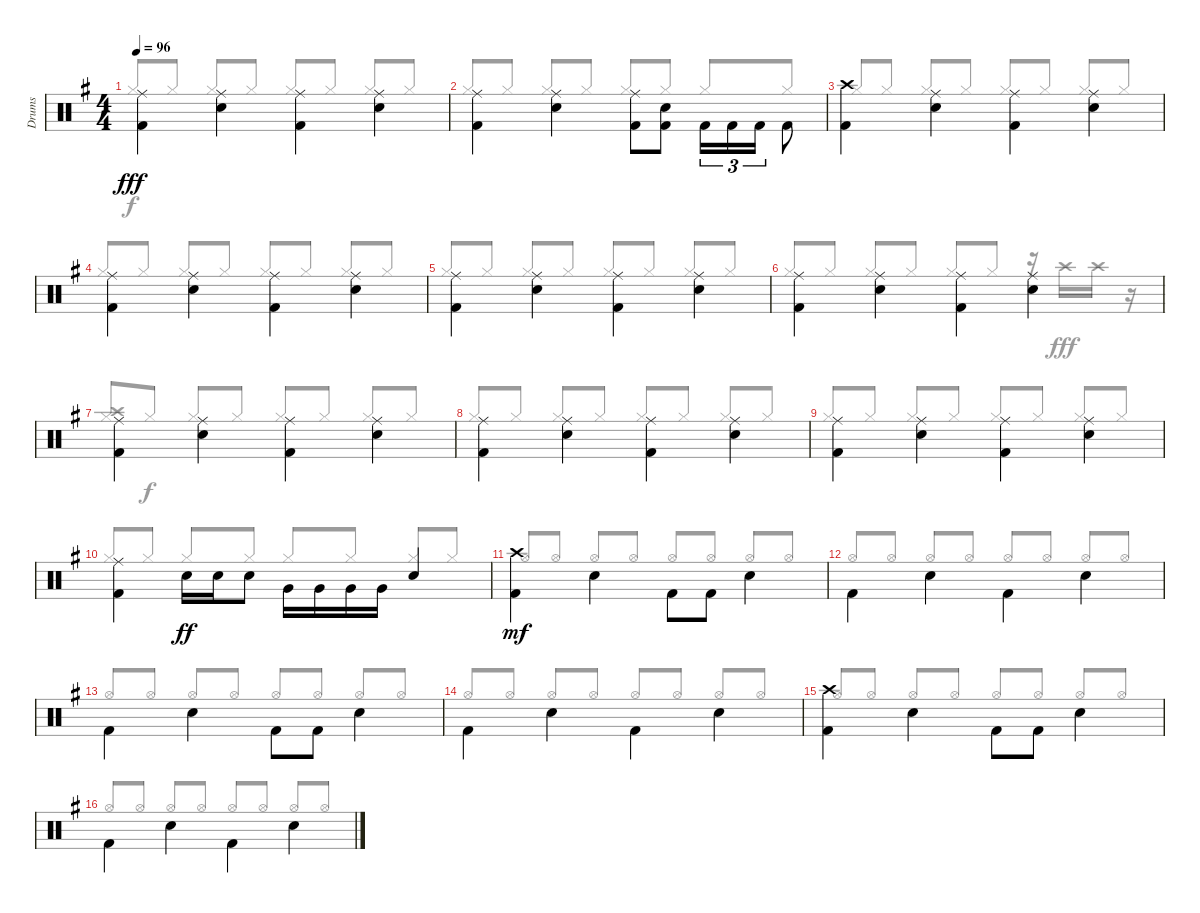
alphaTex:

\track ("Drums" "Drums") {instrument percussion}
\staff {score}
\articulation defaults
\voice
\ts (4 4)
\tempo 96
\clef neutral
\ks g
("Ride (middle)" "Kick (hit) 2").4{dy fff beam Down} ("Ride (middle)" "Snare (hit) 2").4{beam Down} ("Ride (middle)" "Kick (hit) 2").4{beam Down} ("Ride (middle)" "Snare (hit) 2").4{beam Down} |
("Ride (middle)" "Kick (hit) 2").4{beam Down} ("Ride (middle)" "Snare (hit) 2").4{beam Down} ("Ride (middle)" "Kick (hit) 2").8{beam Down} ("Snare (hit) 2" "Kick (hit) 2").8 "Kick (hit) 2".16{tu (3 2) beam Down} "Kick (hit) 2".16{tu (3 2) beam Down} "Kick (hit) 2".16{tu (3 2) beam Down} "Kick (hit) 2".8{beam Down} |
("Crash high (hit)" "Kick (hit) 2").4{beam Down} ("Ride (middle)" "Snare (hit) 2").4{beam Down} ("Ride (middle)" "Kick (hit) 2").4{beam Down} ("Ride (middle)" "Snare (hit) 2").4{beam Down} |
("Ride (middle)" "Kick (hit) 2").4{beam Down} ("Ride (middle)" "Snare (hit) 2").4{beam Down} ("Ride (middle)" "Kick (hit) 2").4{beam Down} ("Ride (middle)" "Snare (hit) 2").4{beam Down} |
("Ride (middle)" "Kick (hit) 2").4{beam Down} ("Ride (middle)" "Snare (hit) 2").4{beam Down} ("Ride (middle)" "Kick (hit) 2").4{beam Down} ("Ride (middle)" "Snare (hit) 2").4{beam Down} |
("Ride (middle)" "Kick (hit) 2").4{beam Down} ("Ride (middle)" "Snare (hit) 2").4{beam Down} ("Ride (middle)" "Kick (hit) 2").4{beam Down} ("Ride (middle)" "Snare (hit) 2").4{beam Down} |
("Ride (middle)" "Kick (hit) 2").4{beam Down} ("Ride (middle)" "Snare (hit) 2").4{beam Down} ("Ride (middle)" "Kick (hit) 2").4{beam Down} ("Ride (middle)" "Snare (hit) 2").4{beam Down} |
("Ride (middle)" "Kick (hit) 2").4{beam Down} ("Ride (middle)" "Snare (hit) 2").4{beam Down} ("Ride (middle)" "Kick (hit) 2").4{beam Down} ("Ride (middle)" "Snare (hit) 2").4{beam Down} |
("Ride (middle)" "Kick (hit) 2").4{beam Down} ("Ride (middle)" "Snare (hit) 2").4{beam Down} ("Ride (middle)" "Kick (hit) 2").4{beam Down} ("Ride (middle)" "Snare (hit) 2").4{beam Down} |
("Ride (middle)" "Kick (hit) 2").4{beam Down} "Snare (hit) 2".16{dy ff beam Down} "Snare (hit) 2".16{beam Down} "Snare (hit) 2".8{beam Down} "Very Low Tom (hit)".16{beam Down} "Very Low Tom (hit)".16{beam Down} "Very Low Tom (hit)".16{beam Down} "Very Low Tom (hit)".16{beam Down} "Snare (hit) 2".4 |
("Crash high (hit)" "Kick (hit) 2").4{dy mf beam Down} "Snare (hit) 2".4{beam Down} "Kick (hit) 2".8{beam Down} "Kick (hit) 2".8{beam Down} "Snare (hit) 2".4{beam Down} |
"Kick (hit) 2".4{beam Down} "Snare (hit) 2".4{beam Down} "Kick (hit) 2".4{beam Down} "Snare (hit) 2".4{beam Down} |
"Kick (hit) 2".4{beam Down} "Snare (hit) 2".4{beam Down} "Kick (hit) 2".8{beam Down} "Kick (hit) 2".8{beam Down} "Snare (hit) 2".4{beam Down} |
"Kick (hit) 2".4{beam Down} "Snare (hit) 2".4{beam Down} "Kick (hit) 2".4{beam Down} "Snare (hit) 2".4{beam Down} |
("Crash high (hit)" "Kick (hit) 2").4{beam Down} "Snare (hit) 2".4{beam Down} "Kick (hit) 2".8{beam Down} "Kick (hit) 2".8{beam Down} "Snare (hit) 2".4{beam Down} |
"Kick (hit) 2".4{beam Down} "Snare (hit) 2".4{beam Down} "Kick (hit) 2".4{beam Down} "Snare (hit) 2".4{beam Down}
\voice
\clef neutral
\ottava regular
\simile none
\ks g "Hi-Hat (closed)".8{dy f beam Up} "Hi-Hat (closed)".8{beam Up} "Hi-Hat (closed)".8{beam Up} "Hi-Hat (closed)".8{beam Up} "Hi-Hat (closed)".8{beam Up} "Hi-Hat (closed)".8{beam Up} "Hi-Hat (closed)".8{beam Up} "Hi-Hat (closed)".8{beam Up}
|
"Hi-Hat (closed)".8{beam Up} "Hi-Hat (closed)".8{beam Up} "Hi-Hat (closed)".8{beam Up} "Hi-Hat (closed)".8{beam Up} "Hi-Hat (closed)".8{beam Up} "Hi-Hat (closed)".8{beam Up} "Hi-Hat (closed)".8{beam Up} "Hi-Hat (closed)".8{beam Up} |
"Hi-Hat (closed)".8{beam Up} "Hi-Hat (closed)".8{beam Up} "Hi-Hat (closed)".8{beam Up} "Hi-Hat (closed)".8{beam Up} "Hi-Hat (closed)".8{beam Up} "Hi-Hat (closed)".8{beam Up} "Hi-Hat (closed)".8{beam Up} "Hi-Hat (closed)".8{beam Up} |
"Hi-Hat (closed)".8{beam Up} "Hi-Hat (closed)".8{beam Up} "Hi-Hat (closed)".8{beam Up} "Hi-Hat (closed)".8{beam Up} "Hi-Hat (closed)".8{beam Up} "Hi-Hat (closed)".8{beam Up} "Hi-Hat (closed)".8{beam Up} "Hi-Hat (closed)".8{beam Up} |
"Hi-Hat (closed)".8{beam Up} "Hi-Hat (closed)".8{beam Up} "Hi-Hat (closed)".8{beam Up} "Hi-Hat (closed)".8{beam Up} "Hi-Hat (closed)".8{beam Up} "Hi-Hat (closed)".8{beam Up} "Hi-Hat (closed)".8{beam Up} "Hi-Hat (closed)".8{beam Up} |
"Hi-Hat (closed)".8{beam Up} "Hi-Hat (closed)".8{beam Up} "Hi-Hat (closed)".8{beam Up} "Hi-Hat (closed)".8{beam Up} "Hi-Hat (closed)".8{beam Up} "Hi-Hat (closed)".8{beam Up} r.16 "Crash high (hit)".16{dy fff} "Crash high (hit)".16 r.16 |
("Crash high (hit)" "Hi-Hat (closed)").8{beam Up} "Hi-Hat (closed)".8{dy f beam Up} "Hi-Hat (closed)".8{beam Up} "Hi-Hat (closed)".8{beam Up} "Hi-Hat (closed)".8{beam Up} "Hi-Hat (closed)".8{beam Up} "Hi-Hat (closed)".8{beam Up} "Hi-Hat (closed)".8{beam Up} |
"Hi-Hat (closed)".8{beam Up} "Hi-Hat (closed)".8{beam Up} "Hi-Hat (closed)".8{beam Up} "Hi-Hat (closed)".8{beam Up} "Hi-Hat (closed)".8{beam Up} "Hi-Hat (closed)".8{beam Up} "Hi-Hat (closed)".8{beam Up} "Hi-Hat (closed)".8{beam Up} |
"Hi-Hat (closed)".8{beam Up} "Hi-Hat (closed)".8{beam Up} "Hi-Hat (closed)".8{beam Up} "Hi-Hat (closed)".8{beam Up} "Hi-Hat (closed)".8{beam Up} "Hi-Hat (closed)".8{beam Up} "Hi-Hat (closed)".8{beam Up} "Hi-Hat (closed)".8{beam Up} |
"Hi-Hat (closed)".8{beam Up} "Hi-Hat (closed)".8{beam Up} "Hi-Hat (closed)".8{beam Up} "Hi-Hat (closed)".8{beam Up} "Hi-Hat (closed)".8{beam Up} "Hi-Hat (closed)".8{beam Up} "Hi-Hat (closed)".8{beam Up} "Hi-Hat (closed)".8{beam Up} |
"Hi-Hat (open)".8{dy mf beam Up} "Hi-Hat (open)".8{beam Up} "Hi-Hat (open)".8{beam Up} "Hi-Hat (open)".8{beam Up} "Hi-Hat (open)".8{beam Up} "Hi-Hat (open)".8{beam Up} "Hi-Hat (open)".8{beam Up} "Hi-Hat (open)".8{beam Up} |
"Hi-Hat (open)".8{beam Up} "Hi-Hat (open)".8{beam Up} "Hi-Hat (open)".8{beam Up} "Hi-Hat (open)".8{beam Up} "Hi-Hat (open)".8{beam Up} "Hi-Hat (open)".8{beam Up} "Hi-Hat (open)".8{beam Up} "Hi-Hat (open)".8{beam Up} |
"Hi-Hat (open)".8{beam Up} "Hi-Hat (open)".8{beam Up} "Hi-Hat (open)".8{beam Up} "Hi-Hat (open)".8{beam Up} "Hi-Hat (open)".8{beam Up} "Hi-Hat (open)".8{beam Up} "Hi-Hat (open)".8{beam Up} "Hi-Hat (open)".8{beam Up} |
"Hi-Hat (open)".8{beam Up} "Hi-Hat (open)".8{beam Up} "Hi-Hat (open)".8{beam Up} "Hi-Hat (open)".8{beam Up} "Hi-Hat (open)".8{beam Up} "Hi-Hat (open)".8{beam Up} "Hi-Hat (open)".8{beam Up} "Hi-Hat (open)".8{beam Up} |
"Hi-Hat (open)".8{beam Up} "Hi-Hat (open)".8{beam Up} "Hi-Hat (open)".8{beam Up} "Hi-Hat (open)".8{beam Up} "Hi-Hat (open)".8{beam Up} "Hi-Hat (open)".8{beam Up} "Hi-Hat (open)".8{beam Up} "Hi-Hat (open)".8{beam Up} |
"Hi-Hat (open)".8{beam Up} "Hi-Hat (open)".8{beam Up} "Hi-Hat (open)".8{beam Up} "Hi-Hat (open)".8{beam Up} "Hi-Hat (open)".8{beam Up} "Hi-Hat (open)".8{beam Up} "Hi-Hat (open)".8{beam Up} "Hi-Hat (open)".8{beam Up}
